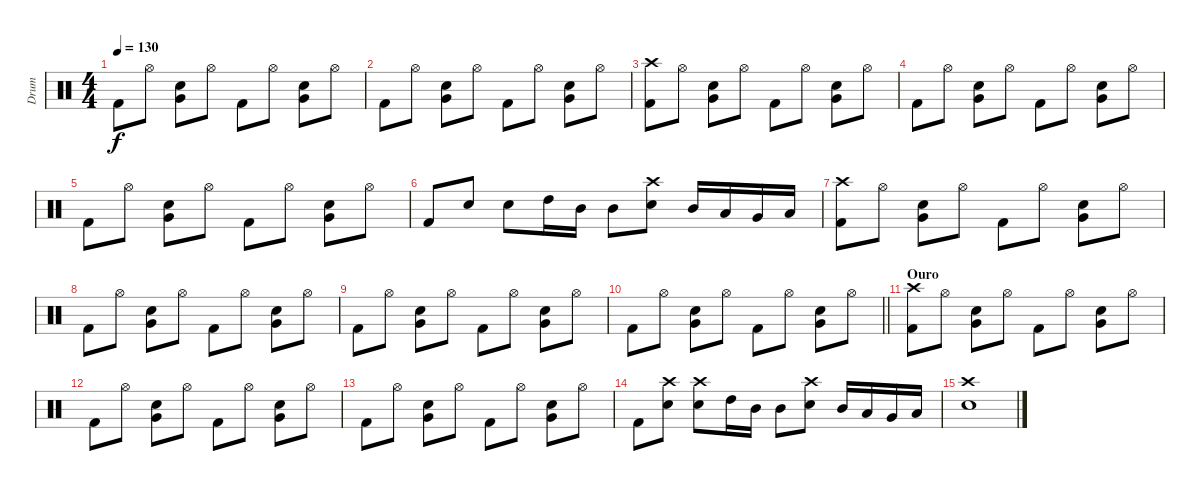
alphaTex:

\track ("Drum" "Drum") {instrument percussion}
\staff {score}
\articulation defaults
\ts (4 4)
\tempo 130
\clef neutral
\ks c "Kick (hit) 2".8{dy f} "Hi-Hat (open)".8
("Snare (hit) 2" "Very Low Tom (hit)").8 "Hi-Hat (open)".8 "Kick (hit) 2".8 "Hi-Hat (open)".8 ("Snare (hit) 2" "Very Low Tom (hit)").8 "Hi-Hat (open)".8 |
"Kick (hit) 2".8 "Hi-Hat (open)".8 ("Snare (hit) 2" "Very Low Tom (hit)").8 "Hi-Hat (open)".8 "Kick (hit) 2".8 "Hi-Hat (open)".8 ("Snare (hit) 2" "Very Low Tom (hit)").8 "Hi-Hat (open)".8 |
("Kick (hit) 2" "Crash high (hit)").8 "Hi-Hat (open)".8 ("Snare (hit) 2" "Very Low Tom (hit)").8 "Hi-Hat (open)".8 "Kick (hit) 2".8 "Hi-Hat (open)".8 ("Snare (hit) 2" "Very Low Tom (hit)").8 "Hi-Hat (open)".8 |
"Kick (hit) 2".8 "Hi-Hat (open)".8 ("Snare (hit) 2" "Very Low Tom (hit)").8 "Hi-Hat (open)".8 "Kick (hit) 2".8 "Hi-Hat (open)".8 ("Snare (hit) 2" "Very Low Tom (hit)").8 "Hi-Hat (open)".8 |
"Kick (hit) 2".8 "Hi-Hat (open)".8 ("Snare (hit) 2" "Very Low Tom (hit)").8 "Hi-Hat (open)".8 "Kick (hit) 2".8 "Hi-Hat (open)".8 ("Snare (hit) 2" "Very Low Tom (hit)").8 "Hi-Hat (open)".8 |
"Kick (hit) 2".8 "Electric Snare (hit)".8 "Electric Snare (hit)".8 "High Tom (hit)".16 "Mid Tom (hit)".16 "Mid Tom (hit)".8 ("Electric Snare (hit)" "Crash high (hit)").8 "Mid Tom (hit)".16 "Low Tom (hit)".16 "Very Low Tom (hit)".16 "Low Floor Tom (hit)".16 |
("Kick (hit) 2" "Crash high (hit)").8 "Hi-Hat (open)".8 ("Snare (hit) 2" "Very Low Tom (hit)").8 "Hi-Hat (open)".8 "Kick (hit) 2".8 "Hi-Hat (open)".8 ("Snare (hit) 2" "Very Low Tom (hit)").8 "Hi-Hat (open)".8 |
"Kick (hit) 2".8 "Hi-Hat (open)".8 ("Snare (hit) 2" "Very Low Tom (hit)").8 "Hi-Hat (open)".8 "Kick (hit) 2".8 "Hi-Hat (open)".8 ("Snare (hit) 2" "Very Low Tom (hit)").8 "Hi-Hat (open)".8 |
"Kick (hit) 2".8 "Hi-Hat (open)".8 ("Snare (hit) 2" "Very Low Tom (hit)").8 "Hi-Hat (open)".8 "Kick (hit) 2".8 "Hi-Hat (open)".8 ("Snare (hit) 2" "Very Low Tom (hit)").8 "Hi-Hat (open)".8 |
\barLineRight lightlight "Kick (hit) 2".8 "Hi-Hat (open)".8
("Snare (hit) 2" "Very Low Tom (hit)").8 "Hi-Hat (open)".8 "Kick (hit) 2".8 "Hi-Hat (open)".8 ("Snare (hit) 2" "Very Low Tom (hit)").8 "Hi-Hat (open)".8 |
\section ("" "Ouro")
("Kick (hit) 2" "Crash high (hit)").8 "Hi-Hat (open)".8 ("Snare (hit) 2" "Very Low Tom (hit)").8 "Hi-Hat (open)".8 "Kick (hit) 2".8 "Hi-Hat (open)".8 ("Snare (hit) 2" "Very Low Tom (hit)").8 "Hi-Hat (open)".8 |
"Kick (hit) 2".8 "Hi-Hat (open)".8 ("Snare (hit) 2" "Very Low Tom (hit)").8 "Hi-Hat (open)".8 "Kick (hit) 2".8 "Hi-Hat (open)".8 ("Snare (hit) 2" "Very Low Tom (hit)").8 "Hi-Hat (open)".8 |
"Kick (hit) 2".8 "Hi-Hat (open)".8 ("Snare (hit) 2" "Very Low Tom (hit)").8 "Hi-Hat (open)".8 "Kick (hit) 2".8 "Hi-Hat (open)".8 ("Snare (hit) 2" "Very Low Tom (hit)").8 "Hi-Hat (open)".8 |
"Kick (hit) 2".8 ("Electric Snare (hit)" "Crash high (hit)").8 ("Electric Snare (hit)" "Crash high (hit)").8 "High Tom (hit)".16 "Mid Tom (hit)".16 "Mid Tom (hit)".8 ("Electric Snare (hit)" "Crash high (hit)").8 "Mid Tom (hit)".16 "Low Tom (hit)".16 "Very Low Tom (hit)".16 "Low Floor Tom (hit)".16 |
("Electric Snare (hit)" "Crash high (hit)").1
